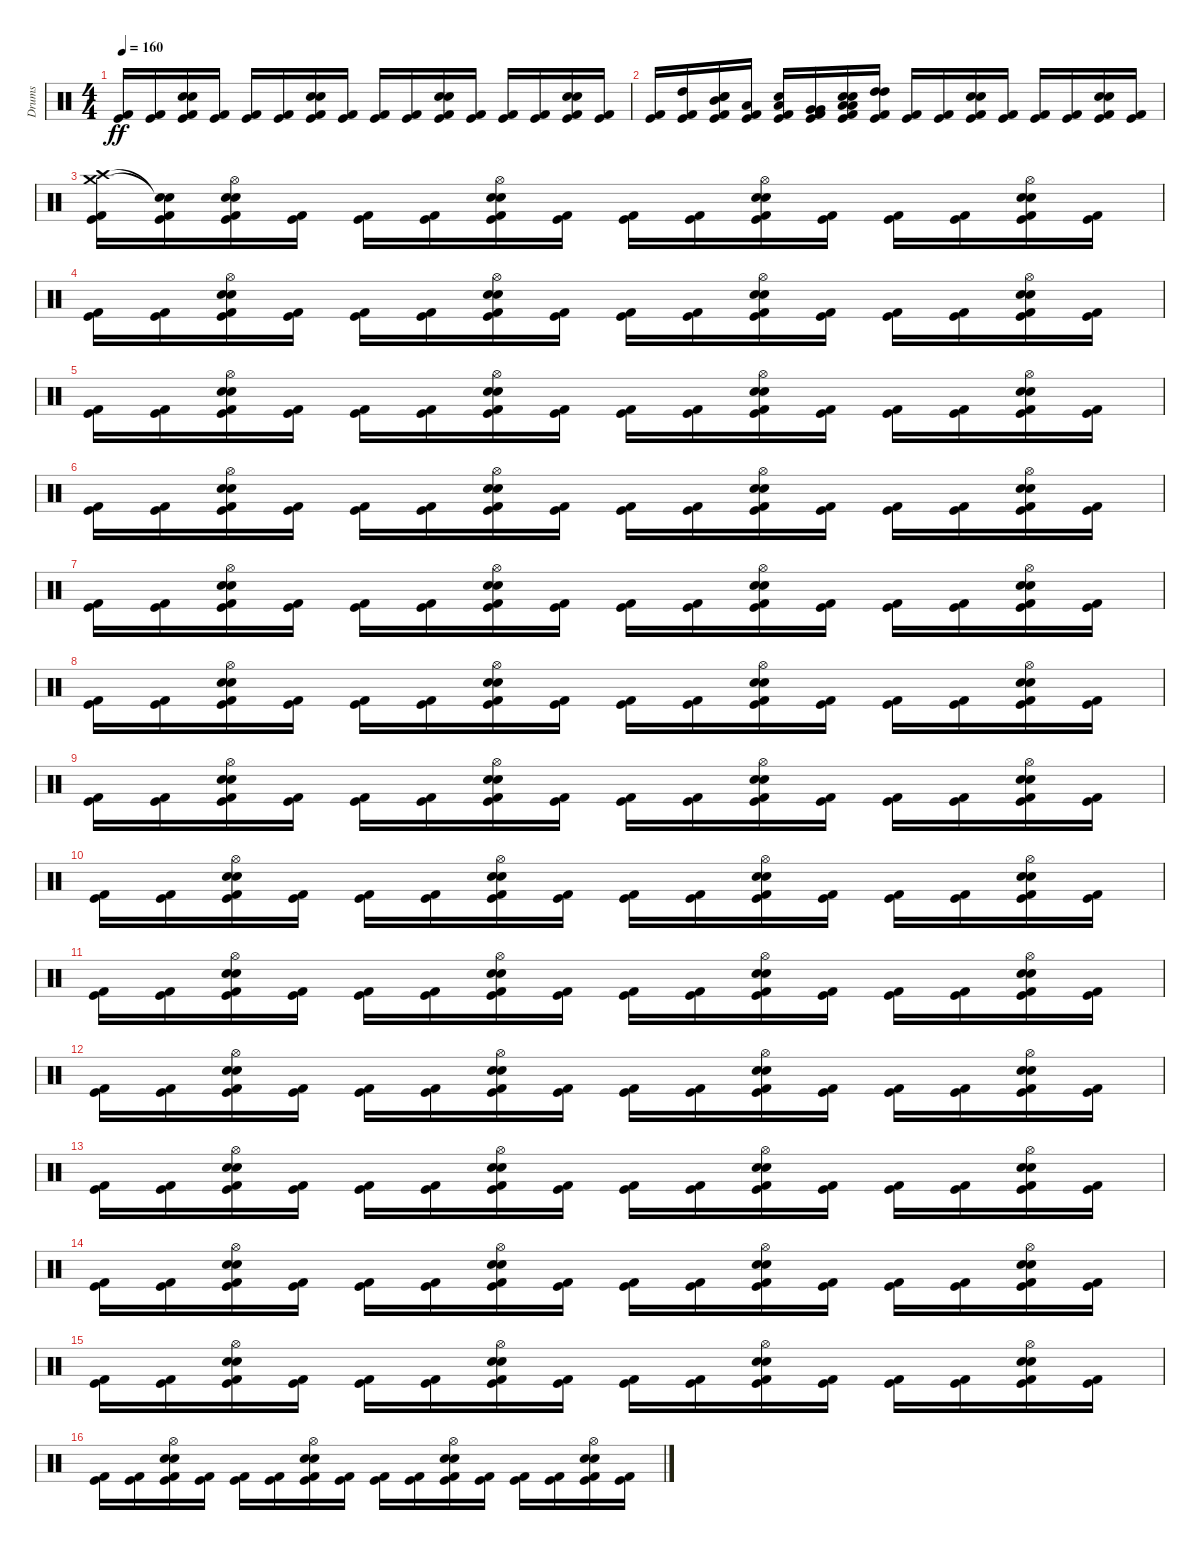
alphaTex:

\track ("Drums" "Drums") {instrument percussion}
\staff {score}
\articulation defaults
\ts (4 4)
\tempo 160
\clef neutral
\ks c
("Kick (hit) 2" "Kick (hit)").16{dy ff} ("Kick (hit) 2" "Kick (hit)").16 ("Kick (hit) 2" "Kick (hit)" "Electric Snare (hit)" "Snare (hit) 2").16 ("Kick (hit) 2" "Kick (hit)").16 ("Kick (hit) 2" "Kick (hit)").16 ("Kick (hit) 2" "Kick (hit)").16 ("Kick (hit) 2" "Kick (hit)" "Electric Snare (hit)" "Snare (hit) 2").16 ("Kick (hit) 2" "Kick (hit)").16 ("Kick (hit) 2" "Kick (hit)").16 ("Kick (hit) 2" "Kick (hit)").16 ("Kick (hit) 2" "Kick (hit)" "Electric Snare (hit)" "Snare (hit) 2").16 ("Kick (hit) 2" "Kick (hit)").16 ("Kick (hit) 2" "Kick (hit)").16 ("Kick (hit) 2" "Kick (hit)").16 ("Kick (hit) 2" "Kick (hit)" "Electric Snare (hit)" "Snare (hit) 2").16 ("Kick (hit) 2" "Kick (hit)").16 |
("Kick (hit) 2" "Kick (hit)").16 ("Kick (hit) 2" "Kick (hit)" "High Tom (hit)").16 ("Kick (hit) 2" "Kick (hit)" "Electric Snare (hit)" "Snare (hit) 2" "Mid Tom (hit)").16 ("Kick (hit) 2" "Kick (hit)" "Low Tom (hit)").16 ("Kick (hit) 2" "Kick (hit)" "Low Tom (hit)" "Snare (hit)").16 ("Kick (hit) 2" "Kick (hit)" "Very Low Tom (hit)" "Very Low Tom (hit)").16 ("Kick (hit) 2" "Kick (hit)" "Electric Snare (hit)" "Snare (hit) 2" "Low Floor Tom (hit)" "Low Floor Tom (hit)").16 ("Kick (hit) 2" "Kick (hit)" "High Tom (hit)" "High Tom (hit)").16 ("Kick (hit) 2" "Kick (hit)").16 ("Kick (hit) 2" "Kick (hit)").16 ("Kick (hit) 2" "Kick (hit)" "Electric Snare (hit)" "Snare (hit) 2").16 ("Kick (hit) 2" "Kick (hit)").16 ("Kick (hit) 2" "Kick (hit)").16 ("Kick (hit) 2" "Kick (hit)").16 ("Kick (hit) 2" "Kick (hit)" "Electric Snare (hit)" "Snare (hit) 2").16 ("Kick (hit) 2" "Kick (hit)").16 |
("Kick (hit) 2" "Kick (hit)" "Crash high (hit)" "Crash medium (hit)").16 ("Kick (hit) 2" "Kick (hit)" "Snare (hit)"{t} "Snare (hit)"{t}).16 ("Kick (hit) 2" "Kick (hit)" "Hi-Hat (open)" "Snare (hit) 2" "Electric Snare (hit)").16 ("Kick (hit) 2" "Kick (hit)").16 ("Kick (hit) 2" "Kick (hit)").16 ("Kick (hit) 2" "Kick (hit)").16 ("Kick (hit) 2" "Kick (hit)" "Hi-Hat (open)" "Snare (hit) 2" "Electric Snare (hit)").16 ("Kick (hit) 2" "Kick (hit)").16 ("Kick (hit) 2" "Kick (hit)").16 ("Kick (hit) 2" "Kick (hit)").16 ("Kick (hit) 2" "Kick (hit)" "Hi-Hat (open)" "Snare (hit) 2" "Electric Snare (hit)").16 ("Kick (hit) 2" "Kick (hit)").16 ("Kick (hit) 2" "Kick (hit)").16 ("Kick (hit) 2" "Kick (hit)").16 ("Kick (hit) 2" "Kick (hit)" "Hi-Hat (open)" "Snare (hit) 2" "Electric Snare (hit)").16 ("Kick (hit) 2" "Kick (hit)").16 |
("Kick (hit) 2" "Kick (hit)").16 ("Kick (hit) 2" "Kick (hit)").16 ("Kick (hit) 2" "Kick (hit)" "Hi-Hat (open)" "Snare (hit) 2" "Electric Snare (hit)").16 ("Kick (hit) 2" "Kick (hit)").16 ("Kick (hit) 2" "Kick (hit)").16 ("Kick (hit) 2" "Kick (hit)").16 ("Kick (hit) 2" "Kick (hit)" "Hi-Hat (open)" "Snare (hit) 2" "Electric Snare (hit)").16 ("Kick (hit) 2" "Kick (hit)").16 ("Kick (hit) 2" "Kick (hit)").16 ("Kick (hit) 2" "Kick (hit)").16 ("Kick (hit) 2" "Kick (hit)" "Hi-Hat (open)" "Snare (hit) 2" "Electric Snare (hit)").16 ("Kick (hit) 2" "Kick (hit)").16 ("Kick (hit) 2" "Kick (hit)").16 ("Kick (hit) 2" "Kick (hit)").16 ("Kick (hit) 2" "Kick (hit)" "Hi-Hat (open)" "Snare (hit) 2" "Electric Snare (hit)").16 ("Kick (hit) 2" "Kick (hit)").16 |
("Kick (hit) 2" "Kick (hit)").16 ("Kick (hit) 2" "Kick (hit)").16 ("Kick (hit) 2" "Kick (hit)" "Hi-Hat (open)" "Snare (hit) 2" "Electric Snare (hit)").16 ("Kick (hit) 2" "Kick (hit)").16 ("Kick (hit) 2" "Kick (hit)").16 ("Kick (hit) 2" "Kick (hit)").16 ("Kick (hit) 2" "Kick (hit)" "Hi-Hat (open)" "Snare (hit) 2" "Electric Snare (hit)").16 ("Kick (hit) 2" "Kick (hit)").16 ("Kick (hit) 2" "Kick (hit)").16 ("Kick (hit) 2" "Kick (hit)").16 ("Kick (hit) 2" "Kick (hit)" "Hi-Hat (open)" "Snare (hit) 2" "Electric Snare (hit)").16 ("Kick (hit) 2" "Kick (hit)").16 ("Kick (hit) 2" "Kick (hit)").16 ("Kick (hit) 2" "Kick (hit)").16 ("Kick (hit) 2" "Kick (hit)" "Hi-Hat (open)" "Snare (hit) 2" "Electric Snare (hit)").16 ("Kick (hit) 2" "Kick (hit)").16 |
("Kick (hit) 2" "Kick (hit)").16 ("Kick (hit) 2" "Kick (hit)").16 ("Kick (hit) 2" "Kick (hit)" "Hi-Hat (open)" "Snare (hit) 2" "Electric Snare (hit)").16 ("Kick (hit) 2" "Kick (hit)").16 ("Kick (hit) 2" "Kick (hit)").16 ("Kick (hit) 2" "Kick (hit)").16 ("Kick (hit) 2" "Kick (hit)" "Hi-Hat (open)" "Snare (hit) 2" "Electric Snare (hit)").16 ("Kick (hit) 2" "Kick (hit)").16 ("Kick (hit) 2" "Kick (hit)").16 ("Kick (hit) 2" "Kick (hit)").16 ("Kick (hit) 2" "Kick (hit)" "Hi-Hat (open)" "Snare (hit) 2" "Electric Snare (hit)").16 ("Kick (hit) 2" "Kick (hit)").16 ("Kick (hit) 2" "Kick (hit)").16 ("Kick (hit) 2" "Kick (hit)").16 ("Kick (hit) 2" "Kick (hit)" "Hi-Hat (open)" "Snare (hit) 2" "Electric Snare (hit)").16 ("Kick (hit) 2" "Kick (hit)").16 |
("Kick (hit) 2" "Kick (hit)").16 ("Kick (hit) 2" "Kick (hit)").16 ("Kick (hit) 2" "Kick (hit)" "Hi-Hat (open)" "Snare (hit) 2" "Electric Snare (hit)").16 ("Kick (hit) 2" "Kick (hit)").16 ("Kick (hit) 2" "Kick (hit)").16 ("Kick (hit) 2" "Kick (hit)").16 ("Kick (hit) 2" "Kick (hit)" "Hi-Hat (open)" "Snare (hit) 2" "Electric Snare (hit)").16 ("Kick (hit) 2" "Kick (hit)").16 ("Kick (hit) 2" "Kick (hit)").16 ("Kick (hit) 2" "Kick (hit)").16 ("Kick (hit) 2" "Kick (hit)" "Hi-Hat (open)" "Snare (hit) 2" "Electric Snare (hit)").16 ("Kick (hit) 2" "Kick (hit)").16 ("Kick (hit) 2" "Kick (hit)").16 ("Kick (hit) 2" "Kick (hit)").16 ("Kick (hit) 2" "Kick (hit)" "Hi-Hat (open)" "Snare (hit) 2" "Electric Snare (hit)").16 ("Kick (hit) 2" "Kick (hit)").16 |
("Kick (hit) 2" "Kick (hit)").16 ("Kick (hit) 2" "Kick (hit)").16 ("Kick (hit) 2" "Kick (hit)" "Hi-Hat (open)" "Snare (hit) 2" "Electric Snare (hit)").16 ("Kick (hit) 2" "Kick (hit)").16 ("Kick (hit) 2" "Kick (hit)").16 ("Kick (hit) 2" "Kick (hit)").16 ("Kick (hit) 2" "Kick (hit)" "Hi-Hat (open)" "Snare (hit) 2" "Electric Snare (hit)").16 ("Kick (hit) 2" "Kick (hit)").16 ("Kick (hit) 2" "Kick (hit)").16 ("Kick (hit) 2" "Kick (hit)").16 ("Kick (hit) 2" "Kick (hit)" "Hi-Hat (open)" "Snare (hit) 2" "Electric Snare (hit)").16 ("Kick (hit) 2" "Kick (hit)").16 ("Kick (hit) 2" "Kick (hit)").16 ("Kick (hit) 2" "Kick (hit)").16 ("Kick (hit) 2" "Kick (hit)" "Hi-Hat (open)" "Snare (hit) 2" "Electric Snare (hit)").16 ("Kick (hit) 2" "Kick (hit)").16 |
("Kick (hit) 2" "Kick (hit)").16 ("Kick (hit) 2" "Kick (hit)").16 ("Kick (hit) 2" "Kick (hit)" "Hi-Hat (open)" "Snare (hit) 2" "Electric Snare (hit)").16 ("Kick (hit) 2" "Kick (hit)").16 ("Kick (hit) 2" "Kick (hit)").16 ("Kick (hit) 2" "Kick (hit)").16 ("Kick (hit) 2" "Kick (hit)" "Hi-Hat (open)" "Snare (hit) 2" "Electric Snare (hit)").16 ("Kick (hit) 2" "Kick (hit)").16 ("Kick (hit) 2" "Kick (hit)").16 ("Kick (hit) 2" "Kick (hit)").16 ("Kick (hit) 2" "Kick (hit)" "Hi-Hat (open)" "Snare (hit) 2" "Electric Snare (hit)").16 ("Kick (hit) 2" "Kick (hit)").16 ("Kick (hit) 2" "Kick (hit)").16 ("Kick (hit) 2" "Kick (hit)").16 ("Kick (hit) 2" "Kick (hit)" "Hi-Hat (open)" "Snare (hit) 2" "Electric Snare (hit)").16 ("Kick (hit) 2" "Kick (hit)").16 |
("Kick (hit) 2" "Kick (hit)").16 ("Kick (hit) 2" "Kick (hit)").16 ("Kick (hit) 2" "Kick (hit)" "Hi-Hat (open)" "Snare (hit) 2" "Electric Snare (hit)").16 ("Kick (hit) 2" "Kick (hit)").16 ("Kick (hit) 2" "Kick (hit)").16 ("Kick (hit) 2" "Kick (hit)").16 ("Kick (hit) 2" "Kick (hit)" "Hi-Hat (open)" "Snare (hit) 2" "Electric Snare (hit)").16 ("Kick (hit) 2" "Kick (hit)").16 ("Kick (hit) 2" "Kick (hit)").16 ("Kick (hit) 2" "Kick (hit)").16 ("Kick (hit) 2" "Kick (hit)" "Hi-Hat (open)" "Snare (hit) 2" "Electric Snare (hit)").16 ("Kick (hit) 2" "Kick (hit)").16 ("Kick (hit) 2" "Kick (hit)").16 ("Kick (hit) 2" "Kick (hit)").16 ("Kick (hit) 2" "Kick (hit)" "Hi-Hat (open)" "Snare (hit) 2" "Electric Snare (hit)").16 ("Kick (hit) 2" "Kick (hit)").16 |
("Kick (hit) 2" "Kick (hit)").16 ("Kick (hit) 2" "Kick (hit)").16 ("Kick (hit) 2" "Kick (hit)" "Hi-Hat (open)" "Snare (hit) 2" "Electric Snare (hit)").16 ("Kick (hit) 2" "Kick (hit)").16 ("Kick (hit) 2" "Kick (hit)").16 ("Kick (hit) 2" "Kick (hit)").16 ("Kick (hit) 2" "Kick (hit)" "Hi-Hat (open)" "Snare (hit) 2" "Electric Snare (hit)").16 ("Kick (hit) 2" "Kick (hit)").16 ("Kick (hit) 2" "Kick (hit)").16 ("Kick (hit) 2" "Kick (hit)").16 ("Kick (hit) 2" "Kick (hit)" "Hi-Hat (open)" "Snare (hit) 2" "Electric Snare (hit)").16 ("Kick (hit) 2" "Kick (hit)").16 ("Kick (hit) 2" "Kick (hit)").16 ("Kick (hit) 2" "Kick (hit)").16 ("Kick (hit) 2" "Kick (hit)" "Hi-Hat (open)" "Snare (hit) 2" "Electric Snare (hit)").16 ("Kick (hit) 2" "Kick (hit)").16 |
("Kick (hit) 2" "Kick (hit)").16 ("Kick (hit) 2" "Kick (hit)").16 ("Kick (hit) 2" "Kick (hit)" "Hi-Hat (open)" "Snare (hit) 2" "Electric Snare (hit)").16 ("Kick (hit) 2" "Kick (hit)").16 ("Kick (hit) 2" "Kick (hit)").16 ("Kick (hit) 2" "Kick (hit)").16 ("Kick (hit) 2" "Kick (hit)" "Hi-Hat (open)" "Snare (hit) 2" "Electric Snare (hit)").16 ("Kick (hit) 2" "Kick (hit)").16 ("Kick (hit) 2" "Kick (hit)").16 ("Kick (hit) 2" "Kick (hit)").16 ("Kick (hit) 2" "Kick (hit)" "Hi-Hat (open)" "Snare (hit) 2" "Electric Snare (hit)").16 ("Kick (hit) 2" "Kick (hit)").16 ("Kick (hit) 2" "Kick (hit)").16 ("Kick (hit) 2" "Kick (hit)").16 ("Kick (hit) 2" "Kick (hit)" "Hi-Hat (open)" "Snare (hit) 2" "Electric Snare (hit)").16 ("Kick (hit) 2" "Kick (hit)").16 |
("Kick (hit) 2" "Kick (hit)").16 ("Kick (hit) 2" "Kick (hit)").16 ("Kick (hit) 2" "Kick (hit)" "Hi-Hat (open)" "Snare (hit) 2" "Electric Snare (hit)").16 ("Kick (hit) 2" "Kick (hit)").16 ("Kick (hit) 2" "Kick (hit)").16 ("Kick (hit) 2" "Kick (hit)").16 ("Kick (hit) 2" "Kick (hit)" "Hi-Hat (open)" "Snare (hit) 2" "Electric Snare (hit)").16 ("Kick (hit) 2" "Kick (hit)").16 ("Kick (hit) 2" "Kick (hit)").16 ("Kick (hit) 2" "Kick (hit)").16 ("Kick (hit) 2" "Kick (hit)" "Hi-Hat (open)" "Snare (hit) 2" "Electric Snare (hit)").16 ("Kick (hit) 2" "Kick (hit)").16 ("Kick (hit) 2" "Kick (hit)").16 ("Kick (hit) 2" "Kick (hit)").16 ("Kick (hit) 2" "Kick (hit)" "Hi-Hat (open)" "Snare (hit) 2" "Electric Snare (hit)").16 ("Kick (hit) 2" "Kick (hit)").16 |
("Kick (hit) 2" "Kick (hit)").16 ("Kick (hit) 2" "Kick (hit)").16 ("Kick (hit) 2" "Kick (hit)" "Hi-Hat (open)" "Snare (hit) 2" "Electric Snare (hit)").16 ("Kick (hit) 2" "Kick (hit)").16 ("Kick (hit) 2" "Kick (hit)").16 ("Kick (hit) 2" "Kick (hit)").16 ("Kick (hit) 2" "Kick (hit)" "Hi-Hat (open)" "Snare (hit) 2" "Electric Snare (hit)").16 ("Kick (hit) 2" "Kick (hit)").16 ("Kick (hit) 2" "Kick (hit)").16 ("Kick (hit) 2" "Kick (hit)").16 ("Kick (hit) 2" "Kick (hit)" "Hi-Hat (open)" "Snare (hit) 2" "Electric Snare (hit)").16 ("Kick (hit) 2" "Kick (hit)").16 ("Kick (hit) 2" "Kick (hit)").16 ("Kick (hit) 2" "Kick (hit)").16 ("Kick (hit) 2" "Kick (hit)" "Hi-Hat (open)" "Snare (hit) 2" "Electric Snare (hit)").16 ("Kick (hit) 2" "Kick (hit)").16 |
("Kick (hit) 2" "Kick (hit)").16 ("Kick (hit) 2" "Kick (hit)").16 ("Kick (hit) 2" "Kick (hit)" "Hi-Hat (open)" "Snare (hit) 2" "Electric Snare (hit)").16 ("Kick (hit) 2" "Kick (hit)").16 ("Kick (hit) 2" "Kick (hit)").16 ("Kick (hit) 2" "Kick (hit)").16 ("Kick (hit) 2" "Kick (hit)" "Hi-Hat (open)" "Snare (hit) 2" "Electric Snare (hit)").16 ("Kick (hit) 2" "Kick (hit)").16 ("Kick (hit) 2" "Kick (hit)").16 ("Kick (hit) 2" "Kick (hit)").16 ("Kick (hit) 2" "Kick (hit)" "Hi-Hat (open)" "Snare (hit) 2" "Electric Snare (hit)").16 ("Kick (hit) 2" "Kick (hit)").16 ("Kick (hit) 2" "Kick (hit)").16 ("Kick (hit) 2" "Kick (hit)").16 ("Kick (hit) 2" "Kick (hit)" "Hi-Hat (open)" "Snare (hit) 2" "Electric Snare (hit)").16 ("Kick (hit) 2" "Kick (hit)").16 |
("Kick (hit) 2" "Kick (hit)").16 ("Kick (hit) 2" "Kick (hit)").16 ("Kick (hit) 2" "Kick (hit)" "Hi-Hat (open)" "Snare (hit) 2" "Electric Snare (hit)").16 ("Kick (hit) 2" "Kick (hit)").16 ("Kick (hit) 2" "Kick (hit)").16 ("Kick (hit) 2" "Kick (hit)").16 ("Kick (hit) 2" "Kick (hit)" "Hi-Hat (open)" "Snare (hit) 2" "Electric Snare (hit)").16 ("Kick (hit) 2" "Kick (hit)").16 ("Kick (hit) 2" "Kick (hit)").16 ("Kick (hit) 2" "Kick (hit)").16 ("Kick (hit) 2" "Kick (hit)" "Hi-Hat (open)" "Snare (hit) 2" "Electric Snare (hit)").16 ("Kick (hit) 2" "Kick (hit)").16 ("Kick (hit) 2" "Kick (hit)").16 ("Kick (hit) 2" "Kick (hit)").16 ("Kick (hit) 2" "Kick (hit)" "Hi-Hat (open)" "Snare (hit) 2" "Electric Snare (hit)").16 ("Kick (hit) 2" "Kick (hit)").16
